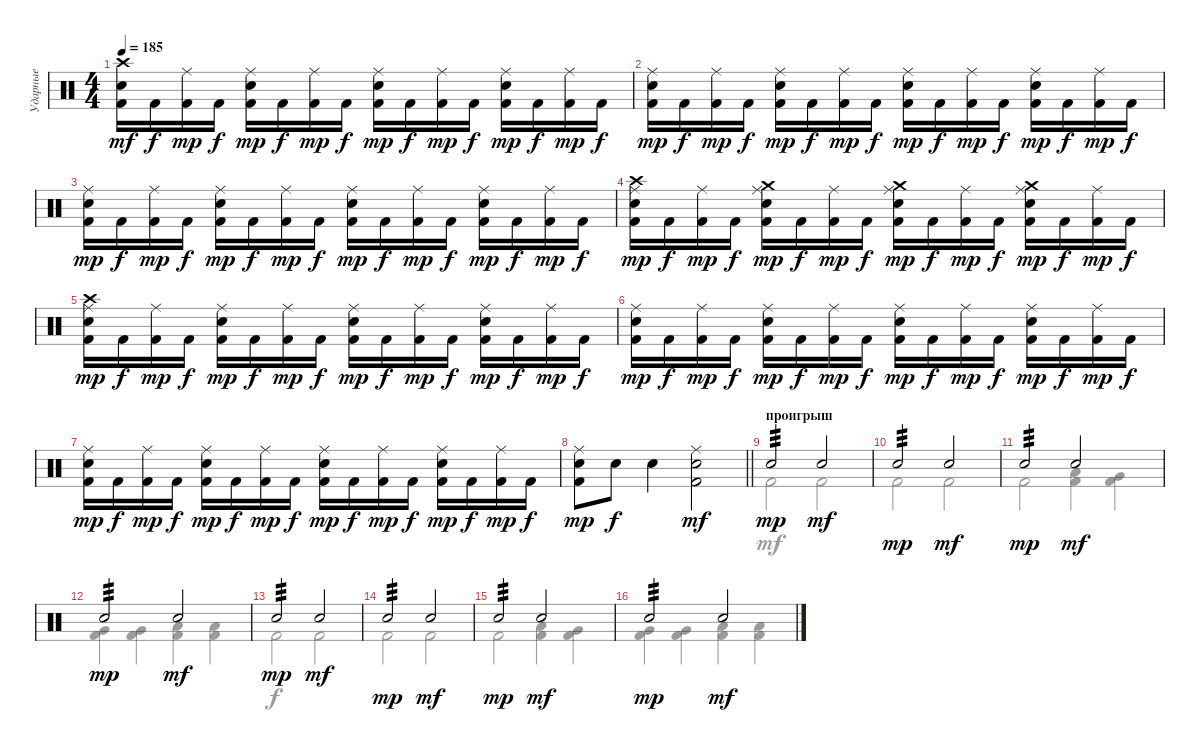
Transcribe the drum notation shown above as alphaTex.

\track ("Ударные" "Ударные") {instrument percussion}
\staff {score}
\articulation defaults
\voice
\ts (4 4)
\tempo 185
\clef neutral
\ks c
("Kick (hit) 2" "Electric Snare (hit)" "Crash high (hit)").16{dy mf} "Kick (hit) 2".16{dy f} ("Kick (hit) 2" "Ride (middle)").16{dy mp} "Kick (hit) 2".16{dy f} ("Kick (hit) 2" "Electric Snare (hit)" "Ride (middle)").16{dy mp} "Kick (hit) 2".16{dy f} ("Kick (hit) 2" "Ride (middle)").16{dy mp} "Kick (hit) 2".16{dy f} ("Kick (hit) 2" "Electric Snare (hit)" "Ride (middle)").16{dy mp} "Kick (hit) 2".16{dy f} ("Kick (hit) 2" "Ride (middle)").16{dy mp} "Kick (hit) 2".16{dy f} ("Kick (hit) 2" "Electric Snare (hit)" "Ride (middle)").16{dy mp} "Kick (hit) 2".16{dy f} ("Kick (hit) 2" "Ride (middle)").16{dy mp} "Kick (hit) 2".16{dy f} |
("Kick (hit) 2" "Electric Snare (hit)" "Ride (middle)").16{dy mp} "Kick (hit) 2".16{dy f} ("Kick (hit) 2" "Ride (middle)").16{dy mp} "Kick (hit) 2".16{dy f} ("Kick (hit) 2" "Electric Snare (hit)" "Ride (middle)").16{dy mp} "Kick (hit) 2".16{dy f} ("Kick (hit) 2" "Ride (middle)").16{dy mp} "Kick (hit) 2".16{dy f} ("Kick (hit) 2" "Electric Snare (hit)" "Ride (middle)").16{dy mp} "Kick (hit) 2".16{dy f} ("Kick (hit) 2" "Ride (middle)").16{dy mp} "Kick (hit) 2".16{dy f} ("Kick (hit) 2" "Electric Snare (hit)" "Ride (middle)").16{dy mp} "Kick (hit) 2".16{dy f} ("Kick (hit) 2" "Ride (middle)").16{dy mp} "Kick (hit) 2".16{dy f} |
("Kick (hit) 2" "Electric Snare (hit)" "Ride (middle)").16{dy mp} "Kick (hit) 2".16{dy f} ("Kick (hit) 2" "Ride (middle)").16{dy mp} "Kick (hit) 2".16{dy f} ("Kick (hit) 2" "Electric Snare (hit)" "Ride (middle)").16{dy mp} "Kick (hit) 2".16{dy f} ("Kick (hit) 2" "Ride (middle)").16{dy mp} "Kick (hit) 2".16{dy f} ("Kick (hit) 2" "Electric Snare (hit)" "Ride (middle)").16{dy mp} "Kick (hit) 2".16{dy f} ("Kick (hit) 2" "Ride (middle)").16{dy mp} "Kick (hit) 2".16{dy f} ("Kick (hit) 2" "Electric Snare (hit)" "Ride (middle)").16{dy mp} "Kick (hit) 2".16{dy f} ("Kick (hit) 2" "Ride (middle)").16{dy mp} "Kick (hit) 2".16{dy f} |
("Kick (hit) 2" "Electric Snare (hit)" "Ride (middle)" "Crash high (hit)").16{dy mp} "Kick (hit) 2".16{dy f} ("Kick (hit) 2" "Ride (middle)").16{dy mp} "Kick (hit) 2".16{dy f} ("Kick (hit) 2" "Electric Snare (hit)" "Ride (middle)" "Crash medium (hit)").16{dy mp} "Kick (hit) 2".16{dy f} ("Kick (hit) 2" "Ride (middle)").16{dy mp} "Kick (hit) 2".16{dy f} ("Kick (hit) 2" "Electric Snare (hit)" "Ride (middle)" "Crash medium (hit)").16{dy mp} "Kick (hit) 2".16{dy f} ("Kick (hit) 2" "Ride (middle)").16{dy mp} "Kick (hit) 2".16{dy f} ("Kick (hit) 2" "Electric Snare (hit)" "Ride (middle)" "Crash medium (hit)").16{dy mp} "Kick (hit) 2".16{dy f} ("Kick (hit) 2" "Ride (middle)").16{dy mp} "Kick (hit) 2".16{dy f} |
("Kick (hit) 2" "Electric Snare (hit)" "Ride (middle)" "Crash high (hit)").16{dy mp} "Kick (hit) 2".16{dy f} ("Kick (hit) 2" "Ride (middle)").16{dy mp} "Kick (hit) 2".16{dy f} ("Kick (hit) 2" "Electric Snare (hit)" "Ride (middle)").16{dy mp} "Kick (hit) 2".16{dy f} ("Kick (hit) 2" "Ride (middle)").16{dy mp} "Kick (hit) 2".16{dy f} ("Kick (hit) 2" "Electric Snare (hit)" "Ride (middle)").16{dy mp} "Kick (hit) 2".16{dy f} ("Kick (hit) 2" "Ride (middle)").16{dy mp} "Kick (hit) 2".16{dy f} ("Kick (hit) 2" "Electric Snare (hit)" "Ride (middle)").16{dy mp} "Kick (hit) 2".16{dy f} ("Kick (hit) 2" "Ride (middle)").16{dy mp} "Kick (hit) 2".16{dy f} |
("Kick (hit) 2" "Electric Snare (hit)" "Ride (middle)").16{dy mp} "Kick (hit) 2".16{dy f} ("Kick (hit) 2" "Ride (middle)").16{dy mp} "Kick (hit) 2".16{dy f} ("Kick (hit) 2" "Electric Snare (hit)" "Ride (middle)").16{dy mp} "Kick (hit) 2".16{dy f} ("Kick (hit) 2" "Ride (middle)").16{dy mp} "Kick (hit) 2".16{dy f} ("Kick (hit) 2" "Electric Snare (hit)" "Ride (middle)").16{dy mp} "Kick (hit) 2".16{dy f} ("Kick (hit) 2" "Ride (middle)").16{dy mp} "Kick (hit) 2".16{dy f} ("Kick (hit) 2" "Electric Snare (hit)" "Ride (middle)").16{dy mp} "Kick (hit) 2".16{dy f} ("Kick (hit) 2" "Ride (middle)").16{dy mp} "Kick (hit) 2".16{dy f} |
("Kick (hit) 2" "Electric Snare (hit)" "Ride (middle)").16{dy mp} "Kick (hit) 2".16{dy f} ("Kick (hit) 2" "Ride (middle)").16{dy mp} "Kick (hit) 2".16{dy f} ("Kick (hit) 2" "Electric Snare (hit)" "Ride (middle)").16{dy mp} "Kick (hit) 2".16{dy f} ("Kick (hit) 2" "Ride (middle)").16{dy mp} "Kick (hit) 2".16{dy f} ("Kick (hit) 2" "Electric Snare (hit)" "Ride (middle)").16{dy mp} "Kick (hit) 2".16{dy f} ("Kick (hit) 2" "Ride (middle)").16{dy mp} "Kick (hit) 2".16{dy f} ("Kick (hit) 2" "Electric Snare (hit)" "Ride (middle)").16{dy mp} "Kick (hit) 2".16{dy f} ("Kick (hit) 2" "Ride (middle)").16{dy mp} "Kick (hit) 2".16{dy f} |
\barLineRight lightlight
("Kick (hit) 2" "Electric Snare (hit)" "Ride (middle)").8{dy mp} "Electric Snare (hit)".8{dy f} "Electric Snare (hit)".4 ("Kick (hit) 2" "Electric Snare (hit)" "Ride (middle)").2{dy mf} |
\section ("" "проигрыш")
"Electric Snare (hit)".2{tp 3 dy mp} "Electric Snare (hit)".2{dy mf} |
"Electric Snare (hit)".2{tp 3 dy mp} "Electric Snare (hit)".2{dy mf} |
"Electric Snare (hit)".2{tp 3 dy mp} "Electric Snare (hit)".2{dy mf} |
"Electric Snare (hit)".2{tp 3 dy mp} "Electric Snare (hit)".2{dy mf} |
"Electric Snare (hit)".2{tp 3 dy mp} "Electric Snare (hit)".2{dy mf} |
"Electric Snare (hit)".2{tp 3 dy mp} "Electric Snare (hit)".2{dy mf} |
"Electric Snare (hit)".2{tp 3 dy mp} "Electric Snare (hit)".2{dy mf} |
"Electric Snare (hit)".2{tp 3 dy mp} "Electric Snare (hit)".2{dy mf}
\voice
\clef neutral
\ottava regular
\simile none
\ks c
|
|
|
|
|
|
|
\barLineRight lightlight
|
"Kick (hit) 2".2 "Kick (hit) 2".2 |
"Kick (hit) 2".2 "Kick (hit) 2".2 |
"Kick (hit) 2".2 ("Kick (hit) 2" "Low Floor Tom (hit)").4{dy mf} ("Kick (hit) 2" "Very Low Tom (hit)").4 |
("Kick (hit) 2" "Very Low Tom (hit)").4 ("Kick (hit) 2" "Very Low Tom (hit)").4 ("Kick (hit) 2" "Low Floor Tom (hit)").4 ("Kick (hit) 2" "Low Floor Tom (hit)").4 |
"Kick (hit) 2".2{dy f} "Kick (hit) 2".2 |
"Kick (hit) 2".2 "Kick (hit) 2".2 |
"Kick (hit) 2".2 ("Kick (hit) 2" "Low Floor Tom (hit)").4{dy mf} ("Kick (hit) 2" "Very Low Tom (hit)").4 |
("Kick (hit) 2" "Very Low Tom (hit)").4 ("Kick (hit) 2" "Very Low Tom (hit)").4 ("Kick (hit) 2" "Low Floor Tom (hit)").4 ("Kick (hit) 2" "Low Floor Tom (hit)").4
